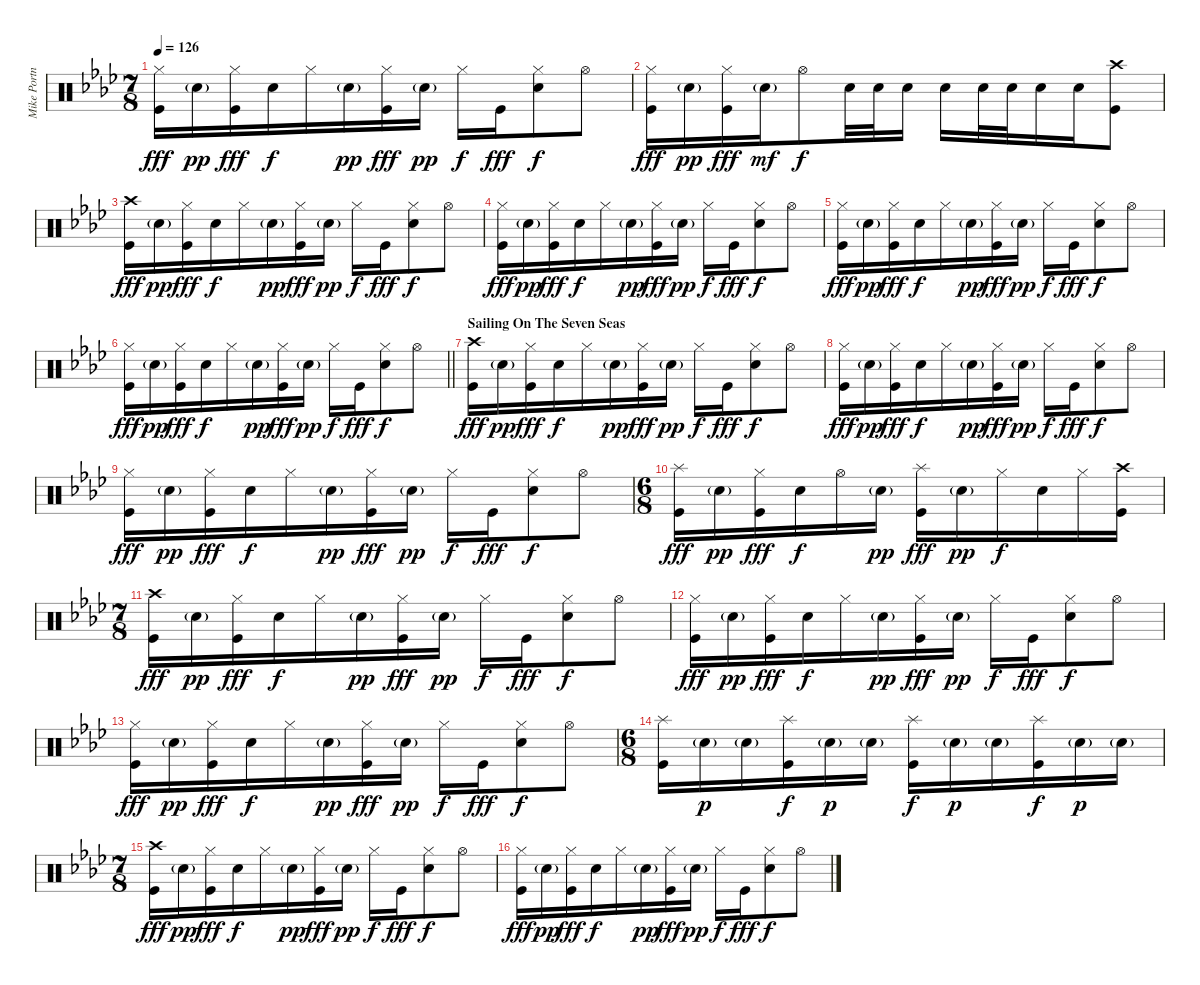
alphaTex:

\track ("Mike Portnoy" "Mike Portn") {instrument percussion}
\staff {score}
\articulation defaults
\ts (7 8)
\tempo 126
\clef neutral
\ks ab
("Hi-Hat (closed)" "Kick (hit)").16{dy fff} "Electric Snare (hit)"{g}.16{dy pp} ("Hi-Hat (closed)" "Kick (hit)").16{dy fff} "Electric Snare (hit)".16{dy f} "Hi-Hat (closed)".16 "Electric Snare (hit)"{g}.16{dy pp} ("Hi-Hat (closed)" "Kick (hit)").16{dy fff} "Electric Snare (hit)"{g}.16{dy pp} "Hi-Hat (closed)".16{dy f} "Kick (hit)".16{dy fff} ("Hi-Hat (closed)" "Electric Snare (hit)").8{dy f} "Hi-Hat (open)".8 |
("Hi-Hat (closed)" "Kick (hit)").16{dy fff} "Electric Snare (hit)"{g}.16{dy pp} ("Hi-Hat (closed)" "Kick (hit)").16{dy fff} "Electric Snare (hit)"{g}.16{dy mf} "Hi-Hat (open)".8{dy f} "Electric Snare (hit)".32 "Electric Snare (hit)".32 "Electric Snare (hit)".16 "Electric Snare (hit)".16 "Electric Snare (hit)".32 "Electric Snare (hit)".32 "Electric Snare (hit)".16 "Electric Snare (hit)".16 ("Crash high (hit)" "Kick (hit)").8 |
("Crash high (hit)" "Kick (hit)").16{dy fff} "Electric Snare (hit)"{g}.16{dy pp} ("Hi-Hat (closed)" "Kick (hit)").16{dy fff} "Electric Snare (hit)".16{dy f} "Hi-Hat (closed)".16 "Electric Snare (hit)"{g}.16{dy pp} ("Hi-Hat (closed)" "Kick (hit)").16{dy fff} "Electric Snare (hit)"{g}.16{dy pp} "Hi-Hat (closed)".16{dy f} "Kick (hit)".16{dy fff} ("Hi-Hat (closed)" "Electric Snare (hit)").8{dy f} "Hi-Hat (open)".8 |
("Hi-Hat (closed)" "Kick (hit)").16{dy fff} "Electric Snare (hit)"{g}.16{dy pp} ("Hi-Hat (closed)" "Kick (hit)").16{dy fff} "Electric Snare (hit)".16{dy f} "Hi-Hat (closed)".16 "Electric Snare (hit)"{g}.16{dy pp} ("Hi-Hat (closed)" "Kick (hit)").16{dy fff} "Electric Snare (hit)"{g}.16{dy pp} "Hi-Hat (closed)".16{dy f} "Kick (hit)".16{dy fff} ("Hi-Hat (closed)" "Electric Snare (hit)").8{dy f} "Hi-Hat (open)".8 |
("Hi-Hat (closed)" "Kick (hit)").16{dy fff} "Electric Snare (hit)"{g}.16{dy pp} ("Hi-Hat (closed)" "Kick (hit)").16{dy fff} "Electric Snare (hit)".16{dy f} "Hi-Hat (closed)".16 "Electric Snare (hit)"{g}.16{dy pp} ("Hi-Hat (closed)" "Kick (hit)").16{dy fff} "Electric Snare (hit)"{g}.16{dy pp} "Hi-Hat (closed)".16{dy f} "Kick (hit)".16{dy fff} ("Hi-Hat (closed)" "Electric Snare (hit)").8{dy f} "Hi-Hat (open)".8 |
\barLineRight lightlight
("Hi-Hat (closed)" "Kick (hit)").16{dy fff} "Electric Snare (hit)"{g}.16{dy pp} ("Hi-Hat (closed)" "Kick (hit)").16{dy fff} "Electric Snare (hit)".16{dy f} "Hi-Hat (closed)".16 "Electric Snare (hit)"{g}.16{dy pp} ("Hi-Hat (closed)" "Kick (hit)").16{dy fff} "Electric Snare (hit)"{g}.16{dy pp} "Hi-Hat (closed)".16{dy f} "Kick (hit)".16{dy fff} ("Hi-Hat (closed)" "Electric Snare (hit)").8{dy f} "Hi-Hat (open)".8 |
\section ("" "Sailing On The Seven Seas")
("Crash high (hit)" "Kick (hit)").16{dy fff} "Electric Snare (hit)"{g}.16{dy pp} ("Hi-Hat (closed)" "Kick (hit)").16{dy fff} "Electric Snare (hit)".16{dy f} "Hi-Hat (closed)".16 "Electric Snare (hit)"{g}.16{dy pp} ("Hi-Hat (closed)" "Kick (hit)").16{dy fff} "Electric Snare (hit)"{g}.16{dy pp} "Hi-Hat (closed)".16{dy f} "Kick (hit)".16{dy fff} ("Hi-Hat (closed)" "Electric Snare (hit)").8{dy f} "Hi-Hat (open)".8 |
("Hi-Hat (closed)" "Kick (hit)").16{dy fff} "Electric Snare (hit)"{g}.16{dy pp} ("Hi-Hat (closed)" "Kick (hit)").16{dy fff} "Electric Snare (hit)".16{dy f} "Hi-Hat (closed)".16 "Electric Snare (hit)"{g}.16{dy pp} ("Hi-Hat (closed)" "Kick (hit)").16{dy fff} "Electric Snare (hit)"{g}.16{dy pp} "Hi-Hat (closed)".16{dy f} "Kick (hit)".16{dy fff} ("Hi-Hat (closed)" "Electric Snare (hit)").8{dy f} "Hi-Hat (open)".8 |
("Hi-Hat (closed)" "Kick (hit)").16{dy fff} "Electric Snare (hit)"{g}.16{dy pp} ("Hi-Hat (closed)" "Kick (hit)").16{dy fff} "Electric Snare (hit)".16{dy f} "Hi-Hat (closed)".16 "Electric Snare (hit)"{g}.16{dy pp} ("Hi-Hat (closed)" "Kick (hit)").16{dy fff} "Electric Snare (hit)"{g}.16{dy pp} "Hi-Hat (closed)".16{dy f} "Kick (hit)".16{dy fff} ("Hi-Hat (closed)" "Electric Snare (hit)").8{dy f} "Hi-Hat (open)".8 |
\ts (6 8)
("Splash (hit)" "Kick (hit)").16{dy fff} "Electric Snare (hit)"{g}.16{dy pp} ("Hi-Hat (closed)" "Kick (hit)").16{dy fff} "Electric Snare (hit)".16{dy f} "Hi-Hat (open)".16 "Electric Snare (hit)"{g}.16{dy pp} ("Splash (hit)" "Kick (hit)").16{dy fff} "Electric Snare (hit)"{g}.16{dy pp} "Hi-Hat (closed)".16{dy f} "Electric Snare (hit)".16 "Hi-Hat (closed)".16 ("Crash high (hit)" "Kick (hit)").16 |
\ts (7 8)
("Crash high (hit)" "Kick (hit)").16{dy fff} "Electric Snare (hit)"{g}.16{dy pp} ("Hi-Hat (closed)" "Kick (hit)").16{dy fff} "Electric Snare (hit)".16{dy f} "Hi-Hat (closed)".16 "Electric Snare (hit)"{g}.16{dy pp} ("Hi-Hat (closed)" "Kick (hit)").16{dy fff} "Electric Snare (hit)"{g}.16{dy pp} "Hi-Hat (closed)".16{dy f} "Kick (hit)".16{dy fff} ("Hi-Hat (closed)" "Electric Snare (hit)").8{dy f} "Hi-Hat (open)".8 |
("Hi-Hat (closed)" "Kick (hit)").16{dy fff} "Electric Snare (hit)"{g}.16{dy pp} ("Hi-Hat (closed)" "Kick (hit)").16{dy fff} "Electric Snare (hit)".16{dy f} "Hi-Hat (closed)".16 "Electric Snare (hit)"{g}.16{dy pp} ("Hi-Hat (closed)" "Kick (hit)").16{dy fff} "Electric Snare (hit)"{g}.16{dy pp} "Hi-Hat (closed)".16{dy f} "Kick (hit)".16{dy fff} ("Hi-Hat (closed)" "Electric Snare (hit)").8{dy f} "Hi-Hat (open)".8 |
("Hi-Hat (closed)" "Kick (hit)").16{dy fff} "Electric Snare (hit)"{g}.16{dy pp} ("Hi-Hat (closed)" "Kick (hit)").16{dy fff} "Electric Snare (hit)".16{dy f} "Hi-Hat (closed)".16 "Electric Snare (hit)"{g}.16{dy pp} ("Hi-Hat (closed)" "Kick (hit)").16{dy fff} "Electric Snare (hit)"{g}.16{dy pp} "Hi-Hat (closed)".16{dy f} "Kick (hit)".16{dy fff} ("Hi-Hat (closed)" "Electric Snare (hit)").8{dy f} "Hi-Hat (open)".8 |
\ts (6 8)
("Splash (hit)" "Kick (hit)").16 "Electric Snare (hit)"{g}.16{dy p} "Electric Snare (hit)"{g}.16 ("Splash (hit)" "Kick (hit)").16{dy f} "Electric Snare (hit)"{g}.16{dy p} "Electric Snare (hit)"{g}.16 ("Splash (hit)" "Kick (hit)").16{dy f} "Electric Snare (hit)"{g}.16{dy p} "Electric Snare (hit)"{g}.16 ("Splash (hit)" "Kick (hit)").16{dy f} "Electric Snare (hit)"{g}.16{dy p} "Electric Snare (hit)"{g}.16 |
\ts (7 8)
("Crash high (hit)" "Kick (hit)").16{dy fff} "Electric Snare (hit)"{g}.16{dy pp} ("Hi-Hat (closed)" "Kick (hit)").16{dy fff} "Electric Snare (hit)".16{dy f} "Hi-Hat (closed)".16 "Electric Snare (hit)"{g}.16{dy pp} ("Hi-Hat (closed)" "Kick (hit)").16{dy fff} "Electric Snare (hit)"{g}.16{dy pp} "Hi-Hat (closed)".16{dy f} "Kick (hit)".16{dy fff} ("Hi-Hat (closed)" "Electric Snare (hit)").8{dy f} "Hi-Hat (open)".8 |
("Hi-Hat (closed)" "Kick (hit)").16{dy fff} "Electric Snare (hit)"{g}.16{dy pp} ("Hi-Hat (closed)" "Kick (hit)").16{dy fff} "Electric Snare (hit)".16{dy f} "Hi-Hat (closed)".16 "Electric Snare (hit)"{g}.16{dy pp} ("Hi-Hat (closed)" "Kick (hit)").16{dy fff} "Electric Snare (hit)"{g}.16{dy pp} "Hi-Hat (closed)".16{dy f} "Kick (hit)".16{dy fff} ("Hi-Hat (closed)" "Electric Snare (hit)").8{dy f} "Hi-Hat (open)".8
